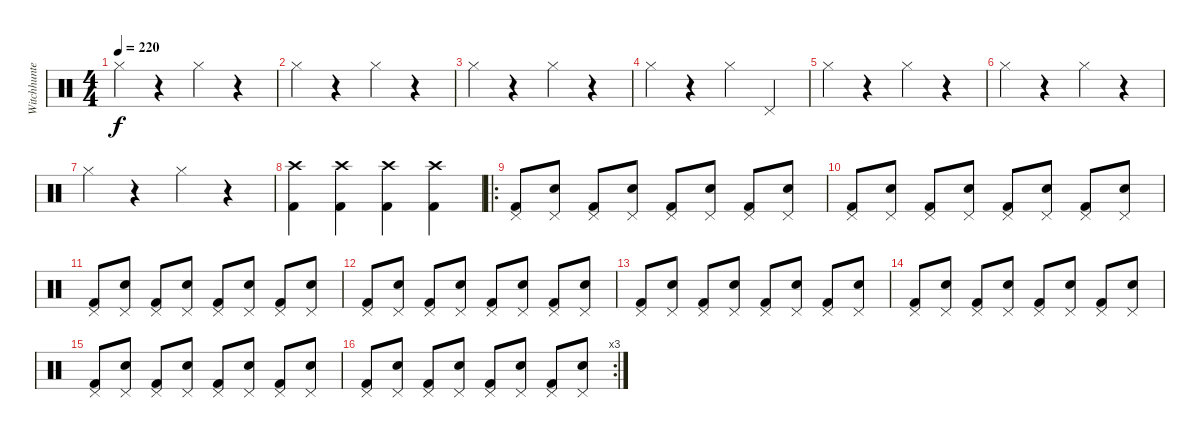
\track ("Witchhunter" "Witchhunte") {instrument percussion}
\staff {score}
\articulation defaults
\ts (4 4)
\tempo 220
\clef neutral
\ks c "Hi-Hat (closed)".4{dy f}
r.4 "Hi-Hat (closed)".4 r.4 |
"Hi-Hat (closed)".4 r.4 "Hi-Hat (closed)".4 r.4 |
"Hi-Hat (closed)".4 r.4 "Hi-Hat (closed)".4 r.4 |
"Hi-Hat (closed)".4 r.4 "Hi-Hat (closed)".4 "Pedal Hi-Hat (hit)".4 |
"Hi-Hat (closed)".4 r.4 "Hi-Hat (closed)".4 r.4 |
"Hi-Hat (closed)".4 r.4 "Hi-Hat (closed)".4 r.4 |
"Hi-Hat (closed)".4 r.4 "Hi-Hat (closed)".4 r.4 |
("Crash high (hit)" "Kick (hit) 2").4 ("Crash high (hit)" "Kick (hit) 2").4 ("Crash high (hit)" "Kick (hit) 2").4 ("Crash high (hit)" "Kick (hit) 2").4 |
\ro
("Kick (hit) 2" "Pedal Hi-Hat (hit)").8 ("Snare (hit) 2" "Pedal Hi-Hat (hit)").8 ("Kick (hit) 2" "Pedal Hi-Hat (hit)").8 ("Snare (hit) 2" "Pedal Hi-Hat (hit)").8 ("Kick (hit) 2" "Pedal Hi-Hat (hit)").8 ("Snare (hit) 2" "Pedal Hi-Hat (hit)").8 ("Kick (hit) 2" "Pedal Hi-Hat (hit)").8 ("Snare (hit) 2" "Pedal Hi-Hat (hit)").8 |
("Kick (hit) 2" "Pedal Hi-Hat (hit)").8 ("Snare (hit) 2" "Pedal Hi-Hat (hit)").8 ("Kick (hit) 2" "Pedal Hi-Hat (hit)").8 ("Snare (hit) 2" "Pedal Hi-Hat (hit)").8 ("Kick (hit) 2" "Pedal Hi-Hat (hit)").8 ("Snare (hit) 2" "Pedal Hi-Hat (hit)").8 ("Kick (hit) 2" "Pedal Hi-Hat (hit)").8 ("Snare (hit) 2" "Pedal Hi-Hat (hit)").8 |
("Kick (hit) 2" "Pedal Hi-Hat (hit)").8 ("Snare (hit) 2" "Pedal Hi-Hat (hit)").8 ("Kick (hit) 2" "Pedal Hi-Hat (hit)").8 ("Snare (hit) 2" "Pedal Hi-Hat (hit)").8 ("Kick (hit) 2" "Pedal Hi-Hat (hit)").8 ("Snare (hit) 2" "Pedal Hi-Hat (hit)").8 ("Kick (hit) 2" "Pedal Hi-Hat (hit)").8 ("Snare (hit) 2" "Pedal Hi-Hat (hit)").8 |
("Kick (hit) 2" "Pedal Hi-Hat (hit)").8 ("Snare (hit) 2" "Pedal Hi-Hat (hit)").8 ("Kick (hit) 2" "Pedal Hi-Hat (hit)").8 ("Snare (hit) 2" "Pedal Hi-Hat (hit)").8 ("Kick (hit) 2" "Pedal Hi-Hat (hit)").8 ("Snare (hit) 2" "Pedal Hi-Hat (hit)").8 ("Kick (hit) 2" "Pedal Hi-Hat (hit)").8 ("Snare (hit) 2" "Pedal Hi-Hat (hit)").8 |
("Kick (hit) 2" "Pedal Hi-Hat (hit)").8 ("Snare (hit) 2" "Pedal Hi-Hat (hit)").8 ("Kick (hit) 2" "Pedal Hi-Hat (hit)").8 ("Snare (hit) 2" "Pedal Hi-Hat (hit)").8 ("Kick (hit) 2" "Pedal Hi-Hat (hit)").8 ("Snare (hit) 2" "Pedal Hi-Hat (hit)").8 ("Kick (hit) 2" "Pedal Hi-Hat (hit)").8 ("Snare (hit) 2" "Pedal Hi-Hat (hit)").8 |
("Kick (hit) 2" "Pedal Hi-Hat (hit)").8 ("Snare (hit) 2" "Pedal Hi-Hat (hit)").8 ("Kick (hit) 2" "Pedal Hi-Hat (hit)").8 ("Snare (hit) 2" "Pedal Hi-Hat (hit)").8 ("Kick (hit) 2" "Pedal Hi-Hat (hit)").8 ("Snare (hit) 2" "Pedal Hi-Hat (hit)").8 ("Kick (hit) 2" "Pedal Hi-Hat (hit)").8 ("Snare (hit) 2" "Pedal Hi-Hat (hit)").8 |
("Kick (hit) 2" "Pedal Hi-Hat (hit)").8 ("Snare (hit) 2" "Pedal Hi-Hat (hit)").8 ("Kick (hit) 2" "Pedal Hi-Hat (hit)").8 ("Snare (hit) 2" "Pedal Hi-Hat (hit)").8 ("Kick (hit) 2" "Pedal Hi-Hat (hit)").8 ("Snare (hit) 2" "Pedal Hi-Hat (hit)").8 ("Kick (hit) 2" "Pedal Hi-Hat (hit)").8 ("Snare (hit) 2" "Pedal Hi-Hat (hit)").8 |
\rc 3
("Kick (hit) 2" "Pedal Hi-Hat (hit)").8 ("Snare (hit) 2" "Pedal Hi-Hat (hit)").8 ("Kick (hit) 2" "Pedal Hi-Hat (hit)").8 ("Snare (hit) 2" "Pedal Hi-Hat (hit)").8 ("Kick (hit) 2" "Pedal Hi-Hat (hit)").8 ("Snare (hit) 2" "Pedal Hi-Hat (hit)").8 ("Kick (hit) 2" "Pedal Hi-Hat (hit)").8 ("Snare (hit) 2" "Pedal Hi-Hat (hit)").8
